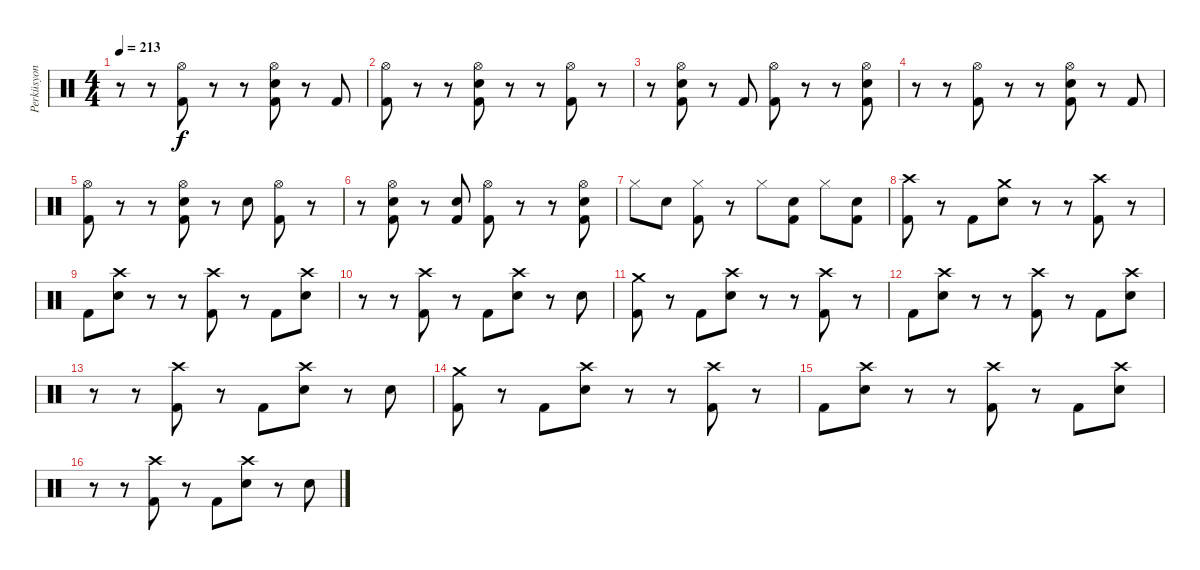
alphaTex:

\track ("Perküsyon" "Perküsyon") {instrument percussion}
\staff {score}
\articulation defaults
\ts (4 4)
\tempo 213
\clef neutral
\ks c
r.8{dy f} r.8 ("Hi-Hat (open)" "Kick (hit) 2").8 r.8 r.8 ("Hi-Hat (open)" "Electric Snare (hit)" "Kick (hit) 2").8 r.8 "Kick (hit) 2".8 |
("Hi-Hat (open)" "Kick (hit) 2").8 r.8 r.8 ("Hi-Hat (open)" "Electric Snare (hit)" "Kick (hit) 2").8 r.8 r.8 ("Hi-Hat (open)" "Kick (hit) 2").8 r.8 |
r.8 ("Hi-Hat (open)" "Electric Snare (hit)" "Kick (hit) 2").8 r.8 "Kick (hit) 2".8 ("Hi-Hat (open)" "Kick (hit) 2").8 r.8 r.8 ("Hi-Hat (open)" "Electric Snare (hit)" "Kick (hit) 2").8 |
r.8 r.8 ("Hi-Hat (open)" "Kick (hit) 2").8 r.8 r.8 ("Hi-Hat (open)" "Electric Snare (hit)" "Kick (hit) 2").8 r.8 "Kick (hit) 2".8 |
("Hi-Hat (open)" "Kick (hit) 2").8 r.8 r.8 ("Hi-Hat (open)" "Electric Snare (hit)" "Kick (hit) 2").8 r.8 "Electric Snare (hit)".8 ("Hi-Hat (open)" "Kick (hit) 2").8 r.8 |
r.8 ("Hi-Hat (open)" "Electric Snare (hit)" "Kick (hit) 2").8 r.8 ("Electric Snare (hit)" "Kick (hit) 2").8 ("Hi-Hat (open)" "Kick (hit) 2").8 r.8 r.8 ("Hi-Hat (open)" "Electric Snare (hit)" "Kick (hit) 2").8 |
"Hi-Hat (closed)".8 "Electric Snare (hit)".8 ("Hi-Hat (closed)" "Kick (hit) 2").8 r.8 "Hi-Hat (closed)".8 ("Electric Snare (hit)" "Kick (hit) 2").8 "Hi-Hat (closed)".8 ("Electric Snare (hit)" "Kick (hit) 2").8 |
("Crash high (hit)" "Kick (hit) 2").8 r.8 "Kick (hit) 2".8 ("Crash medium (hit)" "Electric Snare (hit)").8 r.8 r.8 ("Crash high (hit)" "Kick (hit) 2").8 r.8 |
"Kick (hit) 2".8 ("Crash high (hit)" "Electric Snare (hit)").8 r.8 r.8 ("Crash high (hit)" "Kick (hit) 2").8 r.8 "Kick (hit) 2".8 ("Crash high (hit)" "Electric Snare (hit)").8 |
r.8 r.8 ("Crash high (hit)" "Kick (hit) 2").8 r.8 "Kick (hit) 2".8 ("Crash high (hit)" "Electric Snare (hit)").8 r.8 "Electric Snare (hit)".8 |
("Crash medium (hit)" "Kick (hit) 2").8 r.8 "Kick (hit) 2".8 ("Crash high (hit)" "Electric Snare (hit)").8 r.8 r.8 ("Crash high (hit)" "Kick (hit) 2").8 r.8 |
"Kick (hit) 2".8 ("Crash high (hit)" "Electric Snare (hit)").8 r.8 r.8 ("Crash high (hit)" "Kick (hit) 2").8 r.8 "Kick (hit) 2".8 ("Crash high (hit)" "Electric Snare (hit)").8 |
r.8 r.8 ("Crash high (hit)" "Kick (hit) 2").8 r.8 "Kick (hit) 2".8 ("Crash high (hit)" "Electric Snare (hit)").8 r.8 "Electric Snare (hit)".8 |
("Crash medium (hit)" "Kick (hit) 2").8 r.8 "Kick (hit) 2".8 ("Crash high (hit)" "Electric Snare (hit)").8 r.8 r.8 ("Crash high (hit)" "Kick (hit) 2").8 r.8 |
"Kick (hit) 2".8 ("Crash high (hit)" "Electric Snare (hit)").8 r.8 r.8 ("Crash high (hit)" "Kick (hit) 2").8 r.8 "Kick (hit) 2".8 ("Crash high (hit)" "Electric Snare (hit)").8 |
r.8 r.8 ("Crash high (hit)" "Kick (hit) 2").8 r.8 "Kick (hit) 2".8 ("Crash high (hit)" "Electric Snare (hit)").8 r.8 "Electric Snare (hit)".8
